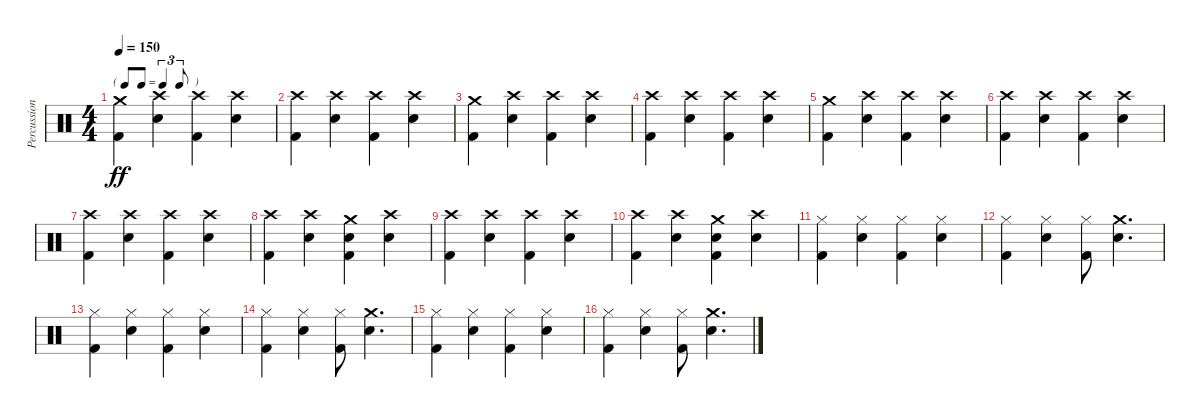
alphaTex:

\track ("Percussion" "Percussion") {instrument percussion}
\staff {score}
\articulation defaults
\ts (4 4)
\tf triplet8th
\tempo 150
\clef neutral
\ks c
("Crash medium (hit)" "Kick (hit) 2").4{dy ff} ("Crash high (hit)" "Electric Snare (hit)").4 ("Crash high (hit)" "Kick (hit) 2").4 ("Crash high (hit)" "Electric Snare (hit)").4 |
("Crash high (hit)" "Kick (hit) 2").4 ("Crash high (hit)" "Electric Snare (hit)").4 ("Crash high (hit)" "Kick (hit) 2").4 ("Crash high (hit)" "Electric Snare (hit)").4 |
("Crash medium (hit)" "Kick (hit) 2").4 ("Crash high (hit)" "Electric Snare (hit)").4 ("Crash high (hit)" "Kick (hit) 2").4 ("Crash high (hit)" "Electric Snare (hit)").4 |
("Crash high (hit)" "Kick (hit) 2").4 ("Crash high (hit)" "Electric Snare (hit)").4 ("Crash high (hit)" "Kick (hit) 2").4 ("Crash high (hit)" "Electric Snare (hit)").4 |
("Crash medium (hit)" "Kick (hit) 2").4 ("Crash high (hit)" "Electric Snare (hit)").4 ("Crash high (hit)" "Kick (hit) 2").4 ("Crash high (hit)" "Electric Snare (hit)").4 |
("Crash high (hit)" "Kick (hit) 2").4 ("Crash high (hit)" "Electric Snare (hit)").4 ("Crash high (hit)" "Kick (hit) 2").4 ("Crash high (hit)" "Electric Snare (hit)").4 |
("Crash high (hit)" "Kick (hit) 2").4 ("Crash high (hit)" "Electric Snare (hit)").4 ("Crash high (hit)" "Kick (hit) 2").4 ("Crash high (hit)" "Electric Snare (hit)").4 |
("Crash high (hit)" "Kick (hit) 2").4 ("Crash high (hit)" "Electric Snare (hit)").4 ("Crash medium (hit)" "Electric Snare (hit)" "Kick (hit) 2").4 ("Crash high (hit)" "Electric Snare (hit)").4 |
("Crash high (hit)" "Kick (hit) 2").4 ("Crash high (hit)" "Electric Snare (hit)").4 ("Crash high (hit)" "Kick (hit) 2").4 ("Crash high (hit)" "Electric Snare (hit)").4 |
("Crash high (hit)" "Kick (hit) 2").4 ("Crash high (hit)" "Electric Snare (hit)").4 ("Crash medium (hit)" "Electric Snare (hit)" "Kick (hit) 2").4 ("Crash high (hit)" "Electric Snare (hit)").4 |
("Hi-Hat (closed)" "Kick (hit) 2").4 ("Hi-Hat (closed)" "Electric Snare (hit)").4 ("Hi-Hat (closed)" "Kick (hit) 2").4 ("Hi-Hat (closed)" "Electric Snare (hit)").4 |
("Hi-Hat (closed)" "Kick (hit) 2").4 ("Hi-Hat (closed)" "Electric Snare (hit)").4 ("Hi-Hat (closed)" "Kick (hit) 2").8 ("Crash medium (hit)" "Electric Snare (hit)").4{d} |
("Hi-Hat (closed)" "Kick (hit) 2").4 ("Hi-Hat (closed)" "Electric Snare (hit)").4 ("Hi-Hat (closed)" "Kick (hit) 2").4 ("Hi-Hat (closed)" "Electric Snare (hit)").4 |
("Hi-Hat (closed)" "Kick (hit) 2").4 ("Hi-Hat (closed)" "Electric Snare (hit)").4 ("Hi-Hat (closed)" "Kick (hit) 2").8 ("Crash medium (hit)" "Electric Snare (hit)").4{d} |
("Hi-Hat (closed)" "Kick (hit) 2").4 ("Hi-Hat (closed)" "Electric Snare (hit)").4 ("Hi-Hat (closed)" "Kick (hit) 2").4 ("Hi-Hat (closed)" "Electric Snare (hit)").4 |
("Hi-Hat (closed)" "Kick (hit) 2").4 ("Hi-Hat (closed)" "Electric Snare (hit)").4 ("Hi-Hat (closed)" "Kick (hit) 2").8 ("Crash medium (hit)" "Electric Snare (hit)").4{d}
